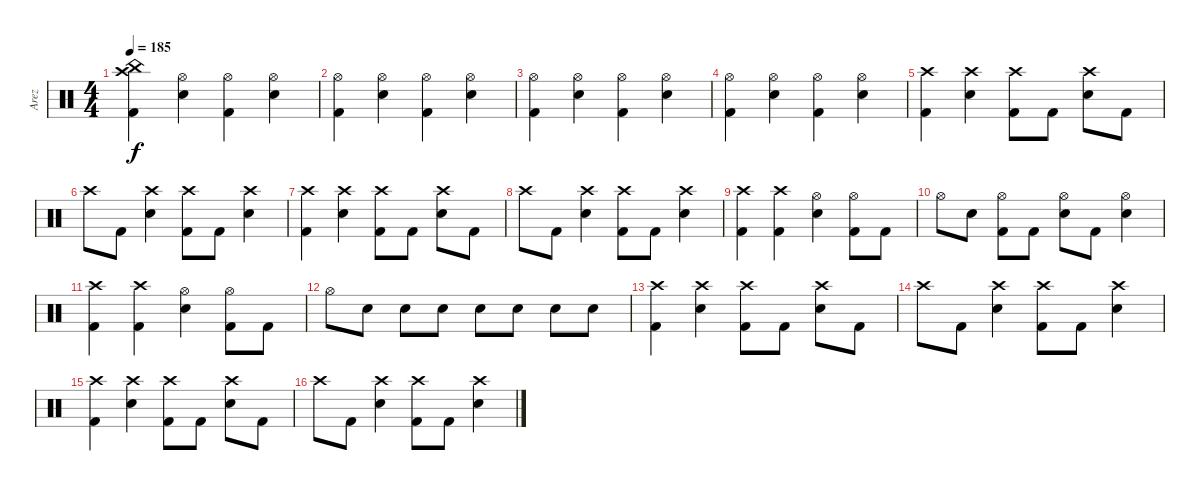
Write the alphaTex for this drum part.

\track ("Arez" "Arez") {instrument percussion}
\staff {score}
\articulation defaults
\ts (4 4)
\tempo 185
\clef neutral
\ks c
("Crash high (hit)" "Kick (hit) 2" "China (hit)").4{dy f} ("Hi-Hat (open)" "Electric Snare (hit)").4 ("Kick (hit) 2" "Hi-Hat (open)").4 ("Hi-Hat (open)" "Electric Snare (hit)").4 |
("Kick (hit) 2" "Hi-Hat (open)").4 ("Hi-Hat (open)" "Electric Snare (hit)").4 ("Kick (hit) 2" "Hi-Hat (open)").4 ("Hi-Hat (open)" "Electric Snare (hit)").4 |
("Kick (hit) 2" "Hi-Hat (open)").4 ("Hi-Hat (open)" "Electric Snare (hit)").4 ("Kick (hit) 2" "Hi-Hat (open)").4 ("Hi-Hat (open)" "Electric Snare (hit)").4 |
("Kick (hit) 2" "Hi-Hat (open)").4 ("Hi-Hat (open)" "Electric Snare (hit)").4 ("Kick (hit) 2" "Hi-Hat (open)").4 ("Hi-Hat (open)" "Electric Snare (hit)").4 |
("Crash high (hit)" "Kick (hit) 2").4 ("Crash high (hit)" "Electric Snare (hit)").4 ("Crash high (hit)" "Kick (hit) 2").8 "Kick (hit) 2".8 ("Crash high (hit)" "Electric Snare (hit)").8 "Kick (hit) 2".8 |
"Crash high (hit)".8 "Kick (hit) 2".8 ("Electric Snare (hit)" "Crash high (hit)").4 ("Kick (hit) 2" "Crash high (hit)").8 "Kick (hit) 2".8 ("Electric Snare (hit)" "Crash high (hit)").4 |
("Crash high (hit)" "Kick (hit) 2").4 ("Crash high (hit)" "Electric Snare (hit)").4 ("Crash high (hit)" "Kick (hit) 2").8 "Kick (hit) 2".8 ("Crash high (hit)" "Electric Snare (hit)").8 "Kick (hit) 2".8 |
"Crash high (hit)".8 "Kick (hit) 2".8 ("Electric Snare (hit)" "Crash high (hit)").4 ("Kick (hit) 2" "Crash high (hit)").8 "Kick (hit) 2".8 ("Electric Snare (hit)" "Crash high (hit)").4 |
("Crash high (hit)" "Kick (hit) 2").4 ("Crash high (hit)" "Kick (hit) 2").4 ("Electric Snare (hit)" "Hi-Hat (open)").4 ("Kick (hit) 2" "Hi-Hat (open)").8 "Kick (hit) 2".8 |
"Hi-Hat (open)".8 "Electric Snare (hit)".8 ("Kick (hit) 2" "Hi-Hat (open)").8 "Kick (hit) 2".8 ("Electric Snare (hit)" "Hi-Hat (open)").8 "Kick (hit) 2".8 ("Hi-Hat (open)" "Electric Snare (hit)").4 |
("Crash high (hit)" "Kick (hit) 2").4 ("Crash high (hit)" "Kick (hit) 2").4 ("Electric Snare (hit)" "Hi-Hat (open)").4 ("Kick (hit) 2" "Hi-Hat (open)").8 "Kick (hit) 2".8 |
"Hi-Hat (open)".8 "Electric Snare (hit)".8 "Electric Snare (hit)".8 "Electric Snare (hit)".8 "Electric Snare (hit)".8 "Electric Snare (hit)".8 "Electric Snare (hit)".8 "Electric Snare (hit)".8 |
("Crash high (hit)" "Kick (hit) 2").4 ("Crash high (hit)" "Electric Snare (hit)").4 ("Crash high (hit)" "Kick (hit) 2").8 "Kick (hit) 2".8 ("Crash high (hit)" "Electric Snare (hit)").8 "Kick (hit) 2".8 |
"Crash high (hit)".8 "Kick (hit) 2".8 ("Electric Snare (hit)" "Crash high (hit)").4 ("Kick (hit) 2" "Crash high (hit)").8 "Kick (hit) 2".8 ("Electric Snare (hit)" "Crash high (hit)").4 |
("Crash high (hit)" "Kick (hit) 2").4 ("Crash high (hit)" "Electric Snare (hit)").4 ("Crash high (hit)" "Kick (hit) 2").8 "Kick (hit) 2".8 ("Crash high (hit)" "Electric Snare (hit)").8 "Kick (hit) 2".8 |
"Crash high (hit)".8 "Kick (hit) 2".8 ("Electric Snare (hit)" "Crash high (hit)").4 ("Kick (hit) 2" "Crash high (hit)").8 "Kick (hit) 2".8 ("Electric Snare (hit)" "Crash high (hit)").4
